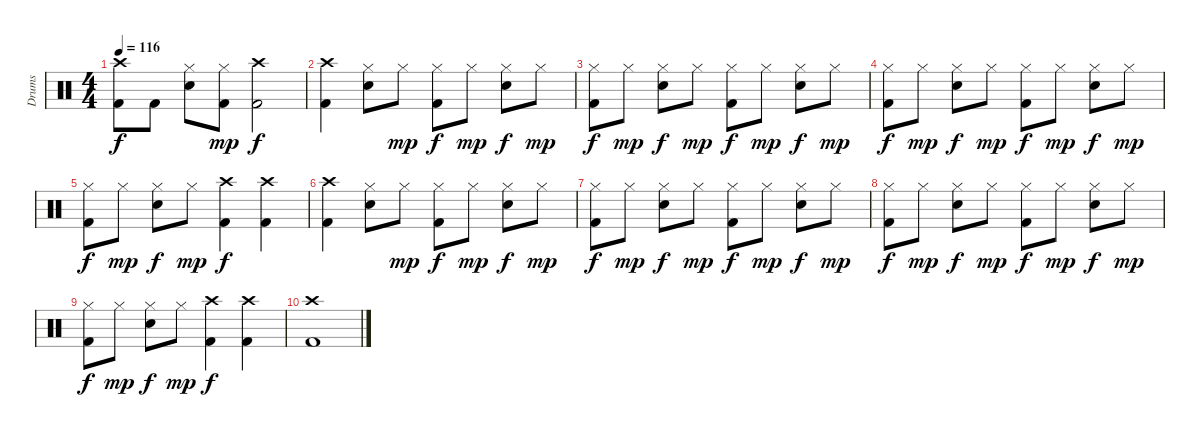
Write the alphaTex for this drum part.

\track ("Drums" "Drums") {instrument percussion}
\staff {score}
\articulation defaults
\ts (4 4)
\tempo 116
\clef neutral
\ks c
("Crash high (hit)" "Kick (hit) 2").8{dy f} "Kick (hit) 2".8 ("Hi-Hat (closed)" "Electric Snare (hit)").8 ("Hi-Hat (closed)" "Kick (hit) 2").8{dy mp} ("Crash high (hit)" "Kick (hit) 2").2{dy f} |
("Crash high (hit)" "Kick (hit) 2").4 ("Hi-Hat (closed)" "Electric Snare (hit)").8 "Hi-Hat (closed)".8{dy mp} ("Hi-Hat (closed)" "Kick (hit) 2").8{dy f} "Hi-Hat (closed)".8{dy mp} ("Hi-Hat (closed)" "Electric Snare (hit)").8{dy f} "Hi-Hat (closed)".8{dy mp} |
("Hi-Hat (closed)" "Kick (hit) 2").8{dy f} "Hi-Hat (closed)".8{dy mp} ("Hi-Hat (closed)" "Electric Snare (hit)").8{dy f} "Hi-Hat (closed)".8{dy mp} ("Hi-Hat (closed)" "Kick (hit) 2").8{dy f} "Hi-Hat (closed)".8{dy mp} ("Hi-Hat (closed)" "Electric Snare (hit)").8{dy f} "Hi-Hat (closed)".8{dy mp} |
("Hi-Hat (closed)" "Kick (hit) 2").8{dy f} "Hi-Hat (closed)".8{dy mp} ("Hi-Hat (closed)" "Electric Snare (hit)").8{dy f} "Hi-Hat (closed)".8{dy mp} ("Hi-Hat (closed)" "Kick (hit) 2").8{dy f} "Hi-Hat (closed)".8{dy mp} ("Hi-Hat (closed)" "Electric Snare (hit)").8{dy f} "Hi-Hat (closed)".8{dy mp} |
("Hi-Hat (closed)" "Kick (hit) 2").8{dy f} "Hi-Hat (closed)".8{dy mp} ("Hi-Hat (closed)" "Electric Snare (hit)").8{dy f} "Hi-Hat (closed)".8{dy mp} ("Crash high (hit)" "Kick (hit) 2").4{dy f} ("Crash high (hit)" "Kick (hit) 2").4 |
("Crash high (hit)" "Kick (hit) 2").4 ("Hi-Hat (closed)" "Electric Snare (hit)").8 "Hi-Hat (closed)".8{dy mp} ("Hi-Hat (closed)" "Kick (hit) 2").8{dy f} "Hi-Hat (closed)".8{dy mp} ("Hi-Hat (closed)" "Electric Snare (hit)").8{dy f} "Hi-Hat (closed)".8{dy mp} |
("Hi-Hat (closed)" "Kick (hit) 2").8{dy f} "Hi-Hat (closed)".8{dy mp} ("Hi-Hat (closed)" "Electric Snare (hit)").8{dy f} "Hi-Hat (closed)".8{dy mp} ("Hi-Hat (closed)" "Kick (hit) 2").8{dy f} "Hi-Hat (closed)".8{dy mp} ("Hi-Hat (closed)" "Electric Snare (hit)").8{dy f} "Hi-Hat (closed)".8{dy mp} |
("Hi-Hat (closed)" "Kick (hit) 2").8{dy f} "Hi-Hat (closed)".8{dy mp} ("Hi-Hat (closed)" "Electric Snare (hit)").8{dy f} "Hi-Hat (closed)".8{dy mp} ("Hi-Hat (closed)" "Kick (hit) 2").8{dy f} "Hi-Hat (closed)".8{dy mp} ("Hi-Hat (closed)" "Electric Snare (hit)").8{dy f} "Hi-Hat (closed)".8{dy mp} |
("Hi-Hat (closed)" "Kick (hit) 2").8{dy f} "Hi-Hat (closed)".8{dy mp} ("Hi-Hat (closed)" "Electric Snare (hit)").8{dy f} "Hi-Hat (closed)".8{dy mp} ("Crash high (hit)" "Kick (hit) 2").4{dy f} ("Crash high (hit)" "Kick (hit) 2").4 |
("Crash high (hit)" "Kick (hit) 2").1
